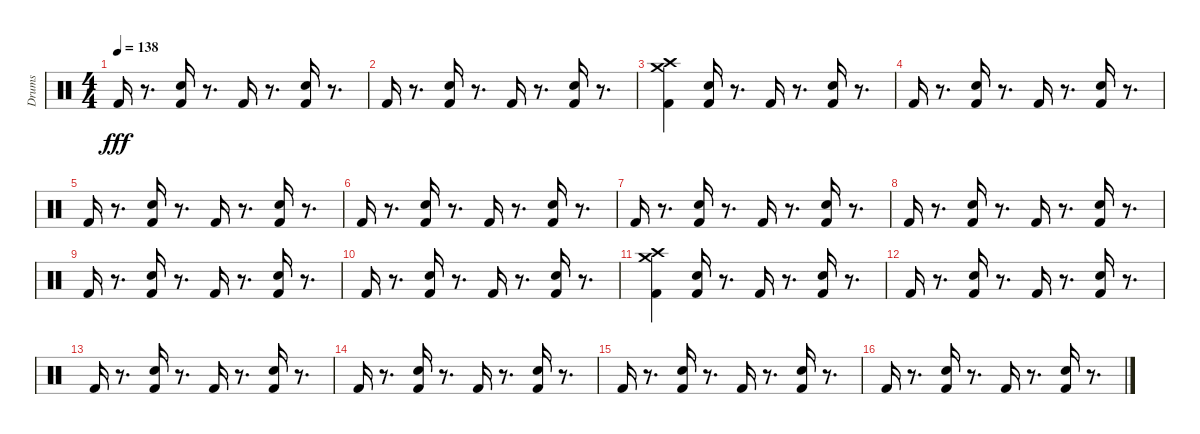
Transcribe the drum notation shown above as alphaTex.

\track ("Drums" "Drums") {instrument percussion}
\staff {score}
\articulation defaults
\ts (4 4)
\tempo 138
\clef neutral
\ks c "Kick (hit) 2".16{dy fff}
r.8{d} ("Kick (hit) 2" "Hand Clap (hit)").16 r.8{d} "Kick (hit) 2".16 r.8{d} ("Kick (hit) 2" "Hand Clap (hit)").16 r.8{d} |
"Kick (hit) 2".16 r.8{d} ("Kick (hit) 2" "Hand Clap (hit)").16 r.8{d} "Kick (hit) 2".16 r.8{d} ("Kick (hit) 2" "Hand Clap (hit)").16 r.8{d} |
("Kick (hit) 2" "Crash medium (hit)" "Crash high (hit)").4 ("Kick (hit) 2" "Hand Clap (hit)").16 r.8{d} "Kick (hit) 2".16 r.8{d} ("Kick (hit) 2" "Hand Clap (hit)").16 r.8{d} |
"Kick (hit) 2".16 r.8{d} ("Kick (hit) 2" "Hand Clap (hit)").16 r.8{d} "Kick (hit) 2".16 r.8{d} ("Kick (hit) 2" "Hand Clap (hit)").16 r.8{d} |
"Kick (hit) 2".16 r.8{d} ("Kick (hit) 2" "Hand Clap (hit)").16 r.8{d} "Kick (hit) 2".16 r.8{d} ("Kick (hit) 2" "Hand Clap (hit)").16 r.8{d} |
"Kick (hit) 2".16 r.8{d} ("Kick (hit) 2" "Hand Clap (hit)").16 r.8{d} "Kick (hit) 2".16 r.8{d} ("Kick (hit) 2" "Hand Clap (hit)").16 r.8{d} |
"Kick (hit) 2".16 r.8{d} ("Kick (hit) 2" "Hand Clap (hit)").16 r.8{d} "Kick (hit) 2".16 r.8{d} ("Kick (hit) 2" "Hand Clap (hit)").16 r.8{d} |
"Kick (hit) 2".16 r.8{d} ("Kick (hit) 2" "Hand Clap (hit)").16 r.8{d} "Kick (hit) 2".16 r.8{d} ("Kick (hit) 2" "Hand Clap (hit)").16 r.8{d} |
"Kick (hit) 2".16 r.8{d} ("Kick (hit) 2" "Hand Clap (hit)").16 r.8{d} "Kick (hit) 2".16 r.8{d} ("Kick (hit) 2" "Hand Clap (hit)").16 r.8{d} |
"Kick (hit) 2".16 r.8{d} ("Kick (hit) 2" "Hand Clap (hit)").16 r.8{d} "Kick (hit) 2".16 r.8{d} ("Kick (hit) 2" "Hand Clap (hit)").16 r.8{d} |
("Kick (hit) 2" "Crash medium (hit)" "Crash high (hit)").4 ("Kick (hit) 2" "Hand Clap (hit)").16 r.8{d} "Kick (hit) 2".16 r.8{d} ("Kick (hit) 2" "Hand Clap (hit)").16 r.8{d} |
"Kick (hit) 2".16 r.8{d} ("Kick (hit) 2" "Hand Clap (hit)").16 r.8{d} "Kick (hit) 2".16 r.8{d} ("Kick (hit) 2" "Hand Clap (hit)").16 r.8{d} |
"Kick (hit) 2".16 r.8{d} ("Kick (hit) 2" "Hand Clap (hit)").16 r.8{d} "Kick (hit) 2".16 r.8{d} ("Kick (hit) 2" "Hand Clap (hit)").16 r.8{d} |
"Kick (hit) 2".16 r.8{d} ("Kick (hit) 2" "Hand Clap (hit)").16 r.8{d} "Kick (hit) 2".16 r.8{d} ("Kick (hit) 2" "Hand Clap (hit)").16 r.8{d} |
"Kick (hit) 2".16 r.8{d} ("Kick (hit) 2" "Hand Clap (hit)").16 r.8{d} "Kick (hit) 2".16 r.8{d} ("Kick (hit) 2" "Hand Clap (hit)").16 r.8{d} |
"Kick (hit) 2".16 r.8{d} ("Kick (hit) 2" "Hand Clap (hit)").16 r.8{d} "Kick (hit) 2".16 r.8{d} ("Kick (hit) 2" "Hand Clap (hit)").16 r.8{d}
